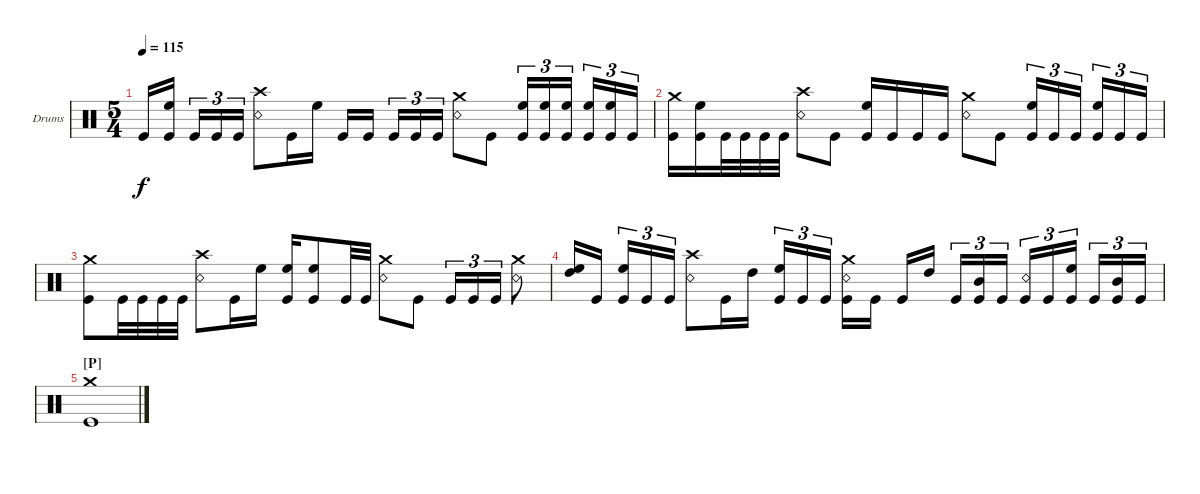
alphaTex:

\defaultSystemsLayout 4
\bracketExtendMode groupsimilarinstruments
\firstSystemTrackNameOrientation horizontal
\otherSystemsTrackNameOrientation horizontal
\track ("Drumkit" "Drums") {instrument percussion}
\staff {score}
\articulation defaults
\ts (5 4)
\tempo 115
\clef neutral
\scale
0.333333
\ks c "Kick (hit)".16{dy f}
("Kick (hit)" "High Floor Tom (hit)").16 "Kick (hit)".16{tu (3 2)} "Kick (hit)".16{tu (3 2)} "Kick (hit)".16{tu (3 2)} ("Snare (rim shot)" "Crash high (hit)").8 "Kick (hit)".16 "High Floor Tom (hit)".16 "Kick (hit)".16 "Kick (hit)".16 "Kick (hit)".16{tu (3 2)} "Kick (hit)".16{tu (3 2)} "Kick (hit)".16{tu (3 2)} ("Snare (rim shot)" "Crash medium (hit)").8 "Kick (hit)".8 ("Kick (hit)" "High Floor Tom (hit)").16{tu (3 2)} ("Kick (hit)" "High Floor Tom (hit)").16{tu (3 2)} ("Kick (hit)" "High Floor Tom (hit)").16{tu (3 2)} ("Kick (hit)" "High Floor Tom (hit)").16{tu (3 2)} ("Kick (hit)" "High Floor Tom (hit)").16{tu (3 2)} "Kick (hit)".16{tu (3 2)} |
\scale
0.333333 ("Kick (hit)" "Crash medium (hit)").16 ("Kick (hit)" "High Floor Tom (hit)").16 "Kick (hit)".32 "Kick (hit)".32 "Kick (hit)".32 "Kick (hit)".32 ("Snare (rim shot)" "Crash high (hit)").8 "Kick (hit)".8 ("High Floor Tom (hit)" "Kick (hit)").16 "Kick (hit)".16 "Kick (hit)".16 "Kick (hit)".16 ("Snare (rim shot)" "Crash medium (hit)").8 "Kick (hit)".8 ("Kick (hit)" "High Floor Tom (hit)").16{tu (3 2)} "Kick (hit)".16{tu (3 2)} "Kick (hit)".16{tu (3 2)} ("Kick (hit)" "High Floor Tom (hit)").16{tu (3 2)} "Kick (hit)".16{tu (3 2)} "Kick (hit)".16{tu (3 2)} |
\scale
0.333333 ("Kick (hit)" "Crash medium (hit)").8 "Kick (hit)".32 "Kick (hit)".32 "Kick (hit)".32 "Kick (hit)".32 ("Snare (rim shot)" "Crash high (hit)").8 "Kick (hit)".16 "High Floor Tom (hit)".16 ("Kick (hit)" "High Floor Tom (hit)").16 ("Kick (hit)" "High Floor Tom (hit)").8 "Kick (hit)".32 "Kick (hit)".32 ("Snare (rim shot)" "Crash medium (hit)").8 "Kick (hit)".8 "Kick (hit)".16{tu (3 2)} "Kick (hit)".16{tu (3 2)} "Kick (hit)".16{tu (3 2)} ("Snare (rim shot)" "Crash medium (hit)").8 |
\scale
0.333333 ("High Floor Tom (hit)" "High Tom (hit)").16 "Kick (hit)".16 ("Kick (hit)" "High Floor Tom (hit)").16{tu (3 2)} "Kick (hit)".16{tu (3 2)} "Kick (hit)".16{tu (3 2)} ("Snare (rim shot)" "Crash high (hit)").8 "Kick (hit)".16 "High Tom (hit)".16 ("High Floor Tom (hit)" "Kick (hit)").16{tu (3 2)} "Kick (hit)".16{tu (3 2)} "Kick (hit)".16{tu (3 2)} ("Kick (hit)" "Snare (rim shot)" "Crash medium (hit)").16 "Kick (hit)".16 "Kick (hit)".16 "High Tom (hit)".16 "Kick (hit)".16{tu (3 2)} ("Kick (hit)" "Mid Tom (hit)").16{tu (3 2)} "Kick (hit)".16{tu (3 2)} ("Kick (hit)" "Snare (rim shot)").16{tu (3 2)} "Kick (hit)".16{tu (3 2)} ("Kick (hit)" "High Floor Tom (hit)").16{tu (3 2)} "Kick (hit)".16{tu (3 2)} ("Kick (hit)" "Mid Tom (hit)").16{tu (3 2)} "Kick (hit)".16{tu (3 2)} |
\beaming (8 3 3 4)
\section ("P" "")
\scale
0.333333 ("Kick (hit)" "Crash medium (hit)").1 |
\scale
0.333333 |
\scale
0.333333 |
\scale
0.333333 |
\scale
0.333333 |
\scale
0.333333 |
\scale
0.333333 |
\scale
0.333333 |
\scale
0.333333 |
\scale
0.333333 |
\scale
0.333333 |
\scale
0.333333
